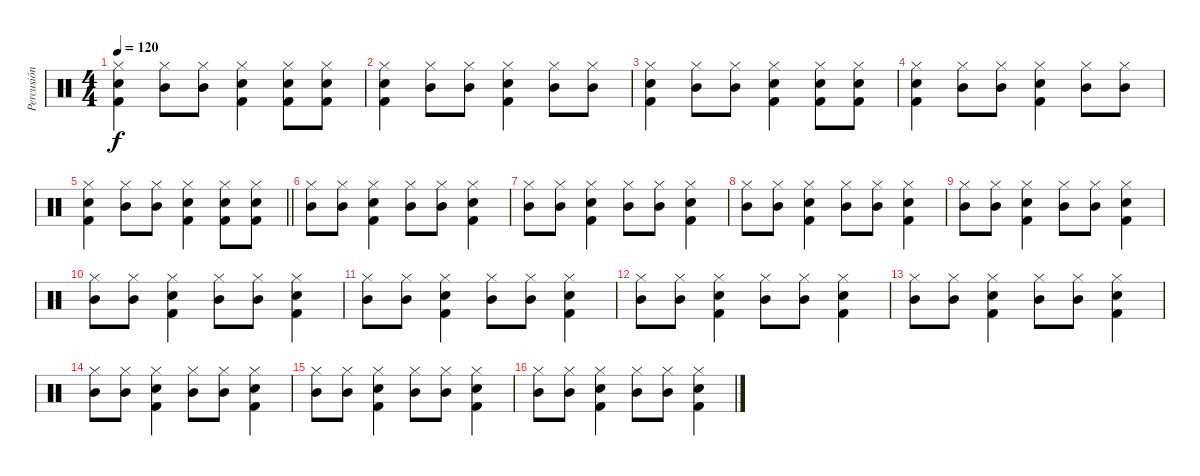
\track ("Percusión" "Percusión") {instrument percussion}
\staff {score}
\articulation defaults
\ts (4 4)
\tempo 120
\clef neutral
\ks c
("Hi-Hat (closed)" "Snare (hit) 2" "Kick (hit) 2").4{dy f} ("Hi-Hat (closed)" "Mid Tom (hit)").8 ("Hi-Hat (closed)" "Mid Tom (hit)").8 ("Hi-Hat (closed)" "Snare (hit) 2" "Kick (hit) 2").4 ("Hi-Hat (closed)" "Snare (hit) 2" "Kick (hit) 2").8 ("Hi-Hat (closed)" "Snare (hit) 2" "Kick (hit) 2").8 |
("Hi-Hat (closed)" "Snare (hit) 2" "Kick (hit) 2").4 ("Hi-Hat (closed)" "Mid Tom (hit)").8 ("Hi-Hat (closed)" "Mid Tom (hit)").8 ("Hi-Hat (closed)" "Snare (hit) 2" "Kick (hit) 2").4 ("Hi-Hat (closed)" "Mid Tom (hit)").8 ("Hi-Hat (closed)" "Mid Tom (hit)").8 |
("Hi-Hat (closed)" "Snare (hit) 2" "Kick (hit) 2").4 ("Hi-Hat (closed)" "Mid Tom (hit)").8 ("Hi-Hat (closed)" "Mid Tom (hit)").8 ("Hi-Hat (closed)" "Snare (hit) 2" "Kick (hit) 2").4 ("Hi-Hat (closed)" "Snare (hit) 2" "Kick (hit) 2").8 ("Hi-Hat (closed)" "Snare (hit) 2" "Kick (hit) 2").8 |
("Hi-Hat (closed)" "Snare (hit) 2" "Kick (hit) 2").4 ("Hi-Hat (closed)" "Mid Tom (hit)").8 ("Hi-Hat (closed)" "Mid Tom (hit)").8 ("Hi-Hat (closed)" "Snare (hit) 2" "Kick (hit) 2").4 ("Hi-Hat (closed)" "Mid Tom (hit)").8 ("Hi-Hat (closed)" "Mid Tom (hit)").8 |
\barLineRight lightlight
("Hi-Hat (closed)" "Snare (hit) 2" "Kick (hit) 2").4 ("Hi-Hat (closed)" "Mid Tom (hit)").8 ("Hi-Hat (closed)" "Mid Tom (hit)").8 ("Hi-Hat (closed)" "Snare (hit) 2" "Kick (hit) 2").4 ("Hi-Hat (closed)" "Snare (hit) 2" "Kick (hit) 2").8 ("Hi-Hat (closed)" "Snare (hit) 2" "Kick (hit) 2").8 |
\section ("" "")
("Hi-Hat (closed)" "Mid Tom (hit)").8 ("Hi-Hat (closed)" "Mid Tom (hit)").8 ("Hi-Hat (closed)" "Snare (hit) 2" "Kick (hit) 2").4 ("Hi-Hat (closed)" "Mid Tom (hit)").8 ("Hi-Hat (closed)" "Mid Tom (hit)").8 ("Hi-Hat (closed)" "Snare (hit) 2" "Kick (hit) 2").4 |
("Hi-Hat (closed)" "Mid Tom (hit)").8 ("Hi-Hat (closed)" "Mid Tom (hit)").8 ("Hi-Hat (closed)" "Snare (hit) 2" "Kick (hit) 2").4 ("Hi-Hat (closed)" "Mid Tom (hit)").8 ("Hi-Hat (closed)" "Mid Tom (hit)").8 ("Hi-Hat (closed)" "Snare (hit) 2" "Kick (hit) 2").4 |
("Hi-Hat (closed)" "Mid Tom (hit)").8 ("Hi-Hat (closed)" "Mid Tom (hit)").8 ("Hi-Hat (closed)" "Snare (hit) 2" "Kick (hit) 2").4 ("Hi-Hat (closed)" "Mid Tom (hit)").8 ("Hi-Hat (closed)" "Mid Tom (hit)").8 ("Hi-Hat (closed)" "Snare (hit) 2" "Kick (hit) 2").4 |
("Hi-Hat (closed)" "Mid Tom (hit)").8 ("Hi-Hat (closed)" "Mid Tom (hit)").8 ("Hi-Hat (closed)" "Snare (hit) 2" "Kick (hit) 2").4 ("Hi-Hat (closed)" "Mid Tom (hit)").8 ("Hi-Hat (closed)" "Mid Tom (hit)").8 ("Hi-Hat (closed)" "Snare (hit) 2" "Kick (hit) 2").4 |
("Hi-Hat (closed)" "Mid Tom (hit)").8 ("Hi-Hat (closed)" "Mid Tom (hit)").8 ("Hi-Hat (closed)" "Snare (hit) 2" "Kick (hit) 2").4 ("Hi-Hat (closed)" "Mid Tom (hit)").8 ("Hi-Hat (closed)" "Mid Tom (hit)").8 ("Hi-Hat (closed)" "Snare (hit) 2" "Kick (hit) 2").4 |
("Hi-Hat (closed)" "Mid Tom (hit)").8 ("Hi-Hat (closed)" "Mid Tom (hit)").8 ("Hi-Hat (closed)" "Snare (hit) 2" "Kick (hit) 2").4 ("Hi-Hat (closed)" "Mid Tom (hit)").8 ("Hi-Hat (closed)" "Mid Tom (hit)").8 ("Hi-Hat (closed)" "Snare (hit) 2" "Kick (hit) 2").4 |
("Hi-Hat (closed)" "Mid Tom (hit)").8 ("Hi-Hat (closed)" "Mid Tom (hit)").8 ("Hi-Hat (closed)" "Snare (hit) 2" "Kick (hit) 2").4 ("Hi-Hat (closed)" "Mid Tom (hit)").8 ("Hi-Hat (closed)" "Mid Tom (hit)").8 ("Hi-Hat (closed)" "Snare (hit) 2" "Kick (hit) 2").4 |
("Hi-Hat (closed)" "Mid Tom (hit)").8 ("Hi-Hat (closed)" "Mid Tom (hit)").8 ("Hi-Hat (closed)" "Snare (hit) 2" "Kick (hit) 2").4 ("Hi-Hat (closed)" "Mid Tom (hit)").8 ("Hi-Hat (closed)" "Mid Tom (hit)").8 ("Hi-Hat (closed)" "Snare (hit) 2" "Kick (hit) 2").4 |
("Hi-Hat (closed)" "Mid Tom (hit)").8 ("Hi-Hat (closed)" "Mid Tom (hit)").8 ("Hi-Hat (closed)" "Snare (hit) 2" "Kick (hit) 2").4 ("Hi-Hat (closed)" "Mid Tom (hit)").8 ("Hi-Hat (closed)" "Mid Tom (hit)").8 ("Hi-Hat (closed)" "Snare (hit) 2" "Kick (hit) 2").4 |
("Hi-Hat (closed)" "Mid Tom (hit)").8 ("Hi-Hat (closed)" "Mid Tom (hit)").8 ("Hi-Hat (closed)" "Snare (hit) 2" "Kick (hit) 2").4 ("Hi-Hat (closed)" "Mid Tom (hit)").8 ("Hi-Hat (closed)" "Mid Tom (hit)").8 ("Hi-Hat (closed)" "Snare (hit) 2" "Kick (hit) 2").4 |
("Hi-Hat (closed)" "Mid Tom (hit)").8 ("Hi-Hat (closed)" "Mid Tom (hit)").8 ("Hi-Hat (closed)" "Snare (hit) 2" "Kick (hit) 2").4 ("Hi-Hat (closed)" "Mid Tom (hit)").8 ("Hi-Hat (closed)" "Mid Tom (hit)").8 ("Hi-Hat (closed)" "Snare (hit) 2" "Kick (hit) 2").4
